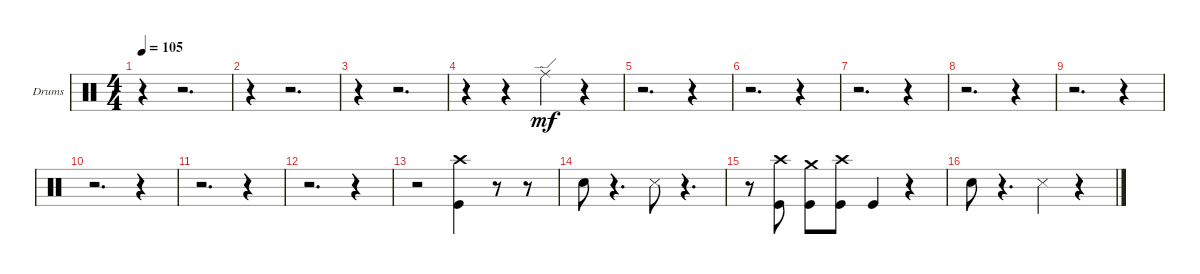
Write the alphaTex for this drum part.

\defaultSystemsLayout 4
\bracketExtendMode groupsimilarinstruments
\firstSystemTrackNameOrientation horizontal
\otherSystemsTrackNameOrientation horizontal
\track ("Drumkit" "Drums") {instrument percussion}
\staff {score}
\articulation defaults
\ts (4 4)
\tempo 105
\clef neutral
\scale
0.333333
\ks c
r.4{dy mf} r.2{d} |
\scale
0.333333 r.4 r.2{d} |
\scale
0.333333 r.4 r.2{d} |
\scale
0.333333 r.4 r.4 "Ride (edge)".4 r.4 |
\scale
0.333333 r.2{d} r.4 |
\scale
0.333333 r.2{d} r.4 |
\scale
0.333333 r.2{d} r.4 |
\scale
0.333333 r.2{d} r.4 |
\scale
0.333333 r.2{d} r.4 |
\scale
0.333333 r.2{d} r.4 |
\scale
0.333333 r.2{d} r.4 |
\scale
0.333333 r.2{d} r.4 |
\scale
0.333333 r.2 ("Kick (hit)" "Crash high (hit)").4 r.8 r.8 |
\scale
0.333333 "Snare (hit) 2".8 r.4{d} "Snare (side stick) 3".8 r.4{d} |
\scale
0.333333 r.8 ("Kick (hit)" "Crash high (hit)").8 ("Kick (hit)" "Crash medium (hit)").8 ("Crash high (hit)" "Kick (hit)").8 "Kick (hit)".4 r.4 |
\scale
0.333333 "Snare (hit) 2".8 r.4{d} "Snare (side stick) 3".4 r.4
